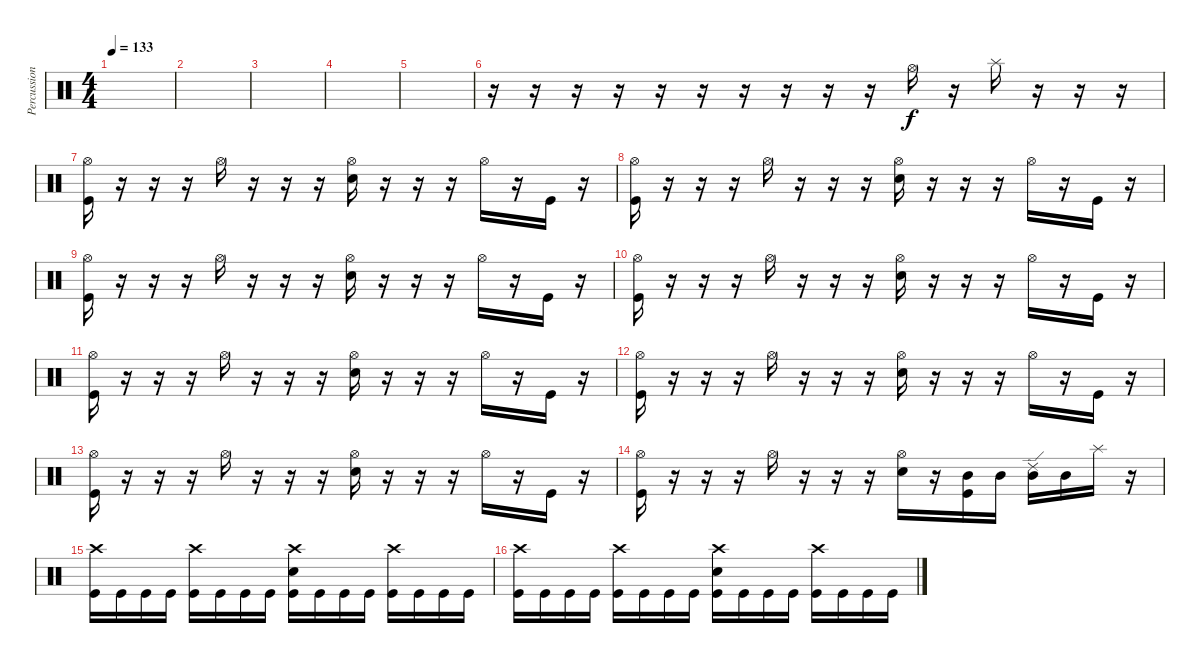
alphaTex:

\track ("Percussion" "Percussion") {instrument percussion}
\staff {score}
\articulation defaults
\ts (4 4)
\tempo 133
\clef neutral
\ks c
|
|
|
|
|
r.16 r.16 r.16 r.16 r.16 r.16 r.16 r.16 r.16 r.16 "Hi-Hat (open)".16 r.16 "Splash (hit)".16 r.16 r.16 r.16 |
("Hi-Hat (open)" "Kick (hit)").16 r.16 r.16 r.16 "Hi-Hat (open)".16 r.16 r.16 r.16 ("Hi-Hat (open)" "Electric Snare (hit)").16 r.16 r.16 r.16 "Hi-Hat (open)".16 r.16 "Kick (hit)".16 r.16 |
("Hi-Hat (open)" "Kick (hit)").16 r.16 r.16 r.16 "Hi-Hat (open)".16 r.16 r.16 r.16 ("Hi-Hat (open)" "Electric Snare (hit)").16 r.16 r.16 r.16 "Hi-Hat (open)".16 r.16 "Kick (hit)".16 r.16 |
("Hi-Hat (open)" "Kick (hit)").16 r.16 r.16 r.16 "Hi-Hat (open)".16 r.16 r.16 r.16 ("Hi-Hat (open)" "Electric Snare (hit)").16 r.16 r.16 r.16 "Hi-Hat (open)".16 r.16 "Kick (hit)".16 r.16 |
("Hi-Hat (open)" "Kick (hit)").16 r.16 r.16 r.16 "Hi-Hat (open)".16 r.16 r.16 r.16 ("Hi-Hat (open)" "Electric Snare (hit)").16 r.16 r.16 r.16 "Hi-Hat (open)".16 r.16 "Kick (hit)".16 r.16 |
("Hi-Hat (open)" "Kick (hit)").16 r.16 r.16 r.16 "Hi-Hat (open)".16 r.16 r.16 r.16 ("Hi-Hat (open)" "Electric Snare (hit)").16 r.16 r.16 r.16 "Hi-Hat (open)".16 r.16 "Kick (hit)".16 r.16 |
("Hi-Hat (open)" "Kick (hit)").16 r.16 r.16 r.16 "Hi-Hat (open)".16 r.16 r.16 r.16 ("Hi-Hat (open)" "Electric Snare (hit)").16 r.16 r.16 r.16 "Hi-Hat (open)".16 r.16 "Kick (hit)".16 r.16 |
("Hi-Hat (open)" "Kick (hit)").16 r.16 r.16 r.16 "Hi-Hat (open)".16 r.16 r.16 r.16 ("Hi-Hat (open)" "Electric Snare (hit)").16 r.16 r.16 r.16 "Hi-Hat (open)".16 r.16 "Kick (hit)".16 r.16 |
("Hi-Hat (open)" "Kick (hit)").16 r.16 r.16 r.16 "Hi-Hat (open)".16 r.16 r.16 r.16 ("Hi-Hat (open)" "Electric Snare (hit)").16 r.16 ("Kick (hit)" "Mid Tom (hit)").16 "Mid Tom (hit)".16 ("Ride (edge) 2" "Mid Tom (hit)").16 "Mid Tom (hit)".16 "Splash (hit)".16 r.16 |
("Crash high (hit)" "Kick (hit)").16 "Kick (hit)".16 "Kick (hit)".16 "Kick (hit)".16 ("Crash high (hit)" "Kick (hit)").16 "Kick (hit)".16 "Kick (hit)".16 "Kick (hit)".16 ("Crash high (hit)" "Electric Snare (hit)" "Kick (hit)").16 "Kick (hit)".16 "Kick (hit)".16 "Kick (hit)".16 ("Crash high (hit)" "Kick (hit)").16 "Kick (hit)".16 "Kick (hit)".16 "Kick (hit)".16 |
("Crash high (hit)" "Kick (hit)").16 "Kick (hit)".16 "Kick (hit)".16 "Kick (hit)".16 ("Crash high (hit)" "Kick (hit)").16 "Kick (hit)".16 "Kick (hit)".16 "Kick (hit)".16 ("Crash high (hit)" "Electric Snare (hit)" "Kick (hit)").16 "Kick (hit)".16 "Kick (hit)".16 "Kick (hit)".16 ("Crash high (hit)" "Kick (hit)").16 "Kick (hit)".16 "Kick (hit)".16 "Kick (hit)".16
